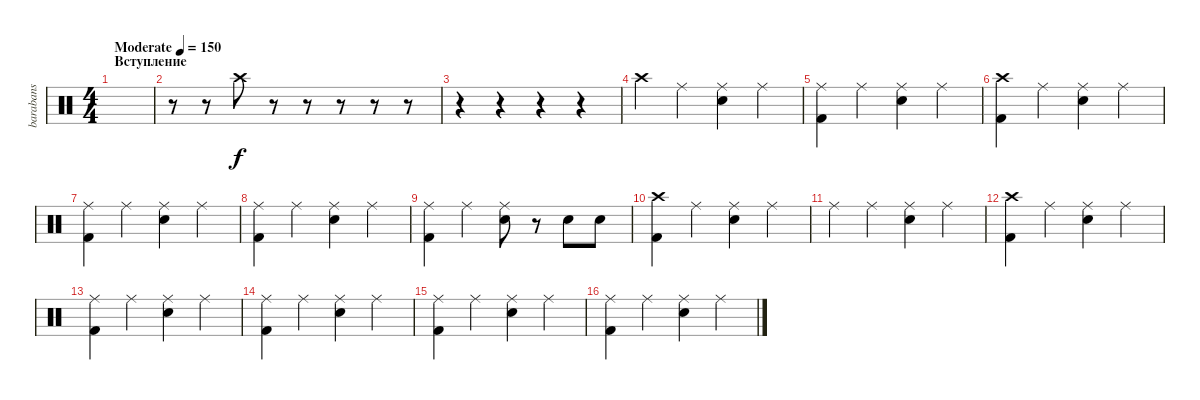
\track ("barabans" "barabans") {instrument percussion}
\staff {score}
\articulation defaults
\ts (4 4)
\section ("" "Вступление")
\tempo (150 "Moderate")
\clef neutral
\ks c
|
r.8 r.8 "Crash high (hit)".8 r.8 r.8 r.8 r.8 r.8 |
r.4 r.4 r.4 r.4 |
"Crash high (hit)".4 "Ride (middle)".4 ("Ride (middle)" "Snare (hit) 2").4 "Ride (middle)".4 |
("Ride (middle)" "Kick (hit) 2").4 "Ride (middle)".4 ("Ride (middle)" "Snare (hit) 2").4 "Ride (middle)".4 |
("Crash high (hit)" "Kick (hit) 2").4 "Ride (middle)".4 ("Ride (middle)" "Snare (hit) 2").4 "Ride (middle)".4 |
("Ride (middle)" "Kick (hit) 2").4 "Ride (middle)".4 ("Ride (middle)" "Snare (hit) 2").4 "Ride (middle)".4 |
("Ride (middle)" "Kick (hit) 2").4 "Ride (middle)".4 ("Ride (middle)" "Snare (hit) 2").4 "Ride (middle)".4 |
("Ride (middle)" "Kick (hit) 2").4 "Ride (middle)".4 ("Ride (middle)" "Snare (hit) 2").8 r.8 "Snare (hit) 2".8 "Snare (hit) 2".8 |
("Crash high (hit)" "Kick (hit) 2").4 "Ride (middle)".4 ("Ride (middle)" "Snare (hit) 2").4 "Ride (middle)".4 |
"Ride (middle)".4 "Ride (middle)".4 ("Ride (middle)" "Snare (hit) 2").4 "Ride (middle)".4 |
("Crash high (hit)" "Kick (hit) 2").4 "Ride (middle)".4 ("Ride (middle)" "Snare (hit) 2").4 "Ride (middle)".4 |
("Ride (middle)" "Kick (hit) 2").4 "Ride (middle)".4 ("Ride (middle)" "Snare (hit) 2").4 "Ride (middle)".4 |
("Ride (middle)" "Kick (hit) 2").4 "Ride (middle)".4 ("Ride (middle)" "Snare (hit) 2").4 "Ride (middle)".4 |
("Ride (middle)" "Kick (hit) 2").4 "Ride (middle)".4 ("Ride (middle)" "Snare (hit) 2").4 "Ride (middle)".4 |
("Ride (middle)" "Kick (hit) 2").4 "Ride (middle)".4 ("Ride (middle)" "Snare (hit) 2").4 "Ride (middle)".4
